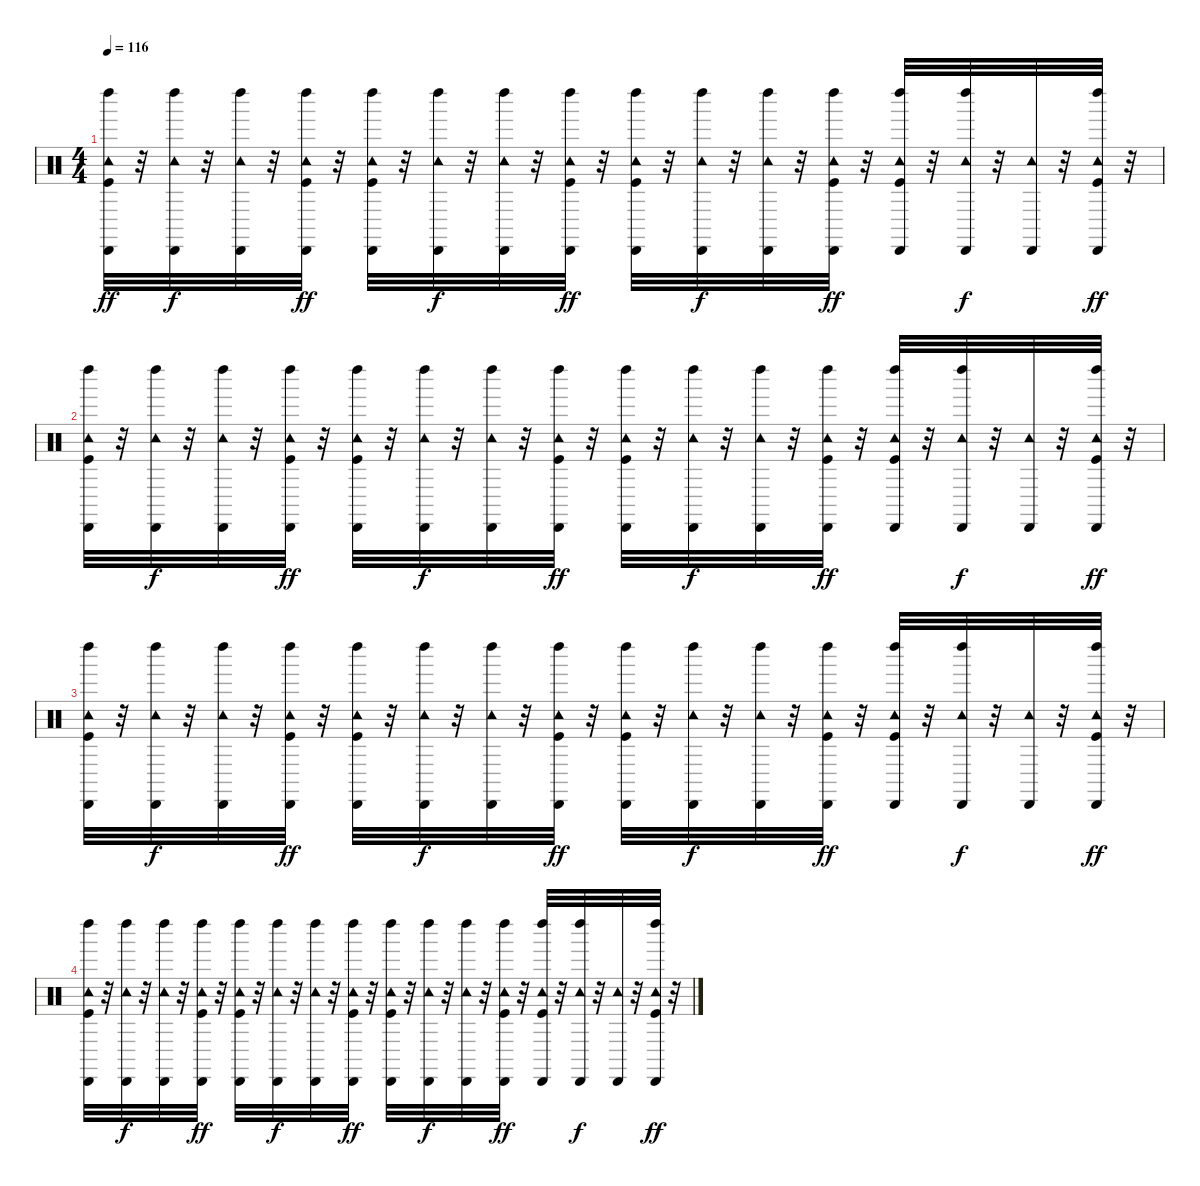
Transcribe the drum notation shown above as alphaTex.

\track "" {instrument percussion}
\staff {score}
\articulation defaults
\ts (4 4)
\tempo 116
\clef neutral
\ks c
("Kick (hit)" "Tambourine (hit)" "Cabasa (hit)" "Left Maraca (hit)").32{dy ff} r.32 ("Tambourine (hit)" "Cabasa (hit)" "Left Maraca (hit)").32{dy f} r.32 ("Tambourine (hit)" "Cabasa (hit)" "Left Maraca (hit)").32 r.32 ("Kick (hit)" "Tambourine (hit)" "Cabasa (hit)" "Left Maraca (hit)").32{dy ff} r.32 ("Kick (hit)" "Tambourine (hit)" "Cabasa (hit)" "Left Maraca (hit)").32 r.32 ("Tambourine (hit)" "Cabasa (hit)" "Left Maraca (hit)").32{dy f} r.32 ("Tambourine (hit)" "Cabasa (hit)" "Left Maraca (hit)").32 r.32 ("Kick (hit)" "Tambourine (hit)" "Cabasa (hit)" "Left Maraca (hit)").32{dy ff} r.32 ("Kick (hit)" "Tambourine (hit)" "Cabasa (hit)" "Left Maraca (hit)").32 r.32 ("Tambourine (hit)" "Cabasa (hit)" "Left Maraca (hit)").32{dy f} r.32 ("Tambourine (hit)" "Cabasa (hit)" "Left Maraca (hit)").32 r.32 ("Kick (hit)" "Tambourine (hit)" "Cabasa (hit)" "Left Maraca (hit)").32{dy ff} r.32 ("Kick (hit)" "Tambourine (hit)" "Cabasa (hit)" "Left Maraca (hit)").32 r.32 ("Tambourine (hit)" "Cabasa (hit)" "Left Maraca (hit)").32{dy f} r.32 ("Tambourine (hit)" "Cabasa (hit)").32 r.32 ("Kick (hit)" "Tambourine (hit)" "Cabasa (hit)" "Left Maraca (hit)").32{dy ff} r.32 |
("Kick (hit)" "Tambourine (hit)" "Cabasa (hit)" "Left Maraca (hit)").32 r.32 ("Tambourine (hit)" "Cabasa (hit)" "Left Maraca (hit)").32{dy f} r.32 ("Tambourine (hit)" "Cabasa (hit)" "Left Maraca (hit)").32 r.32 ("Kick (hit)" "Tambourine (hit)" "Cabasa (hit)" "Left Maraca (hit)").32{dy ff} r.32 ("Kick (hit)" "Tambourine (hit)" "Cabasa (hit)" "Left Maraca (hit)").32 r.32 ("Tambourine (hit)" "Cabasa (hit)" "Left Maraca (hit)").32{dy f} r.32 ("Tambourine (hit)" "Cabasa (hit)" "Left Maraca (hit)").32 r.32 ("Kick (hit)" "Tambourine (hit)" "Cabasa (hit)" "Left Maraca (hit)").32{dy ff} r.32 ("Kick (hit)" "Tambourine (hit)" "Cabasa (hit)" "Left Maraca (hit)").32 r.32 ("Tambourine (hit)" "Cabasa (hit)" "Left Maraca (hit)").32{dy f} r.32 ("Tambourine (hit)" "Cabasa (hit)" "Left Maraca (hit)").32 r.32 ("Kick (hit)" "Tambourine (hit)" "Cabasa (hit)" "Left Maraca (hit)").32{dy ff} r.32 ("Kick (hit)" "Tambourine (hit)" "Cabasa (hit)" "Left Maraca (hit)").32 r.32 ("Tambourine (hit)" "Cabasa (hit)" "Left Maraca (hit)").32{dy f} r.32 ("Tambourine (hit)" "Cabasa (hit)").32 r.32 ("Kick (hit)" "Tambourine (hit)" "Cabasa (hit)" "Left Maraca (hit)").32{dy ff} r.32 |
("Kick (hit)" "Tambourine (hit)" "Cabasa (hit)" "Left Maraca (hit)").32 r.32 ("Tambourine (hit)" "Cabasa (hit)" "Left Maraca (hit)").32{dy f} r.32 ("Tambourine (hit)" "Cabasa (hit)" "Left Maraca (hit)").32 r.32 ("Kick (hit)" "Tambourine (hit)" "Cabasa (hit)" "Left Maraca (hit)").32{dy ff} r.32 ("Kick (hit)" "Tambourine (hit)" "Cabasa (hit)" "Left Maraca (hit)").32 r.32 ("Tambourine (hit)" "Cabasa (hit)" "Left Maraca (hit)").32{dy f} r.32 ("Tambourine (hit)" "Cabasa (hit)" "Left Maraca (hit)").32 r.32 ("Kick (hit)" "Tambourine (hit)" "Cabasa (hit)" "Left Maraca (hit)").32{dy ff} r.32 ("Kick (hit)" "Tambourine (hit)" "Cabasa (hit)" "Left Maraca (hit)").32 r.32 ("Tambourine (hit)" "Cabasa (hit)" "Left Maraca (hit)").32{dy f} r.32 ("Tambourine (hit)" "Cabasa (hit)" "Left Maraca (hit)").32 r.32 ("Kick (hit)" "Tambourine (hit)" "Cabasa (hit)" "Left Maraca (hit)").32{dy ff} r.32 ("Kick (hit)" "Tambourine (hit)" "Cabasa (hit)" "Left Maraca (hit)").32 r.32 ("Tambourine (hit)" "Cabasa (hit)" "Left Maraca (hit)").32{dy f} r.32 ("Tambourine (hit)" "Cabasa (hit)").32 r.32 ("Kick (hit)" "Tambourine (hit)" "Cabasa (hit)" "Left Maraca (hit)").32{dy ff} r.32 |
("Kick (hit)" "Tambourine (hit)" "Cabasa (hit)" "Left Maraca (hit)").32 r.32 ("Tambourine (hit)" "Cabasa (hit)" "Left Maraca (hit)").32{dy f} r.32 ("Tambourine (hit)" "Cabasa (hit)" "Left Maraca (hit)").32 r.32 ("Kick (hit)" "Tambourine (hit)" "Cabasa (hit)" "Left Maraca (hit)").32{dy ff} r.32 ("Kick (hit)" "Tambourine (hit)" "Cabasa (hit)" "Left Maraca (hit)").32 r.32 ("Tambourine (hit)" "Cabasa (hit)" "Left Maraca (hit)").32{dy f} r.32 ("Tambourine (hit)" "Cabasa (hit)" "Left Maraca (hit)").32 r.32 ("Kick (hit)" "Tambourine (hit)" "Cabasa (hit)" "Left Maraca (hit)").32{dy ff} r.32 ("Kick (hit)" "Tambourine (hit)" "Cabasa (hit)" "Left Maraca (hit)").32 r.32 ("Tambourine (hit)" "Cabasa (hit)" "Left Maraca (hit)").32{dy f} r.32 ("Tambourine (hit)" "Cabasa (hit)" "Left Maraca (hit)").32 r.32 ("Kick (hit)" "Tambourine (hit)" "Cabasa (hit)" "Left Maraca (hit)").32{dy ff} r.32 ("Kick (hit)" "Tambourine (hit)" "Cabasa (hit)" "Left Maraca (hit)").32 r.32 ("Tambourine (hit)" "Cabasa (hit)" "Left Maraca (hit)").32{dy f} r.32 ("Tambourine (hit)" "Cabasa (hit)").32 r.32 ("Kick (hit)" "Tambourine (hit)" "Cabasa (hit)" "Left Maraca (hit)").32{dy ff} r.32
